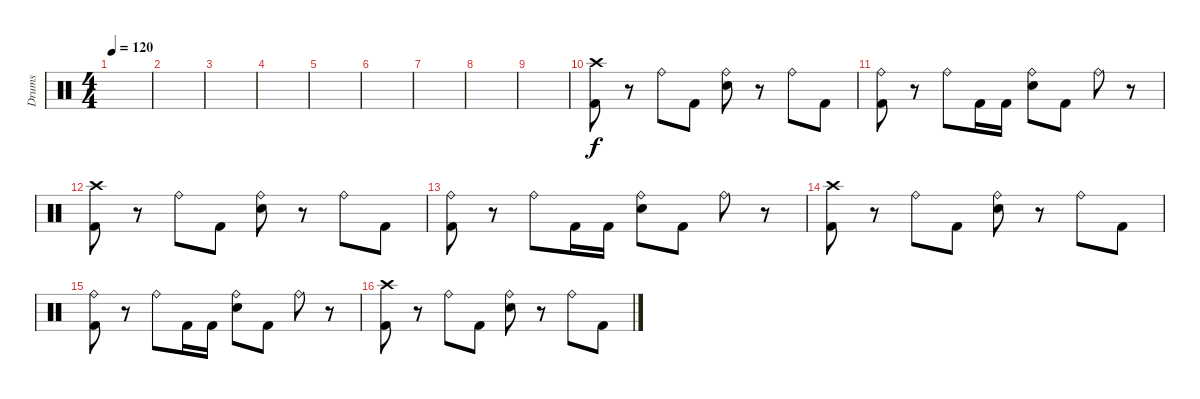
\track ("Drums" "Drums") {instrument percussion}
\staff {score}
\articulation defaults
\ts (4 4)
\tempo 120
\clef neutral
\ks c
|
|
|
|
|
|
|
|
|
("Crash high (hit)" "Kick (hit) 2").8 r.8 "Ride (bell)".8 "Kick (hit) 2".8 ("Ride (bell)" "Electric Snare (hit)").8 r.8 "Ride (bell)".8 "Kick (hit) 2".8 |
("Ride (bell)" "Kick (hit) 2").8 r.8 "Ride (bell)".8 "Kick (hit) 2".16 "Kick (hit) 2".16 ("Ride (bell)" "Electric Snare (hit)").8 "Kick (hit) 2".8 "Ride (bell)".8 r.8 |
("Crash high (hit)" "Kick (hit) 2").8 r.8 "Ride (bell)".8 "Kick (hit) 2".8 ("Ride (bell)" "Electric Snare (hit)").8 r.8 "Ride (bell)".8 "Kick (hit) 2".8 |
("Ride (bell)" "Kick (hit) 2").8 r.8 "Ride (bell)".8 "Kick (hit) 2".16 "Kick (hit) 2".16 ("Ride (bell)" "Electric Snare (hit)").8 "Kick (hit) 2".8 "Ride (bell)".8 r.8 |
("Crash high (hit)" "Kick (hit) 2").8 r.8 "Ride (bell)".8 "Kick (hit) 2".8 ("Ride (bell)" "Electric Snare (hit)").8 r.8 "Ride (bell)".8 "Kick (hit) 2".8 |
("Ride (bell)" "Kick (hit) 2").8 r.8 "Ride (bell)".8 "Kick (hit) 2".16 "Kick (hit) 2".16 ("Ride (bell)" "Electric Snare (hit)").8 "Kick (hit) 2".8 "Ride (bell)".8 r.8 |
("Crash high (hit)" "Kick (hit) 2").8 r.8 "Ride (bell)".8 "Kick (hit) 2".8 ("Ride (bell)" "Electric Snare (hit)").8 r.8 "Ride (bell)".8 "Kick (hit) 2".8
